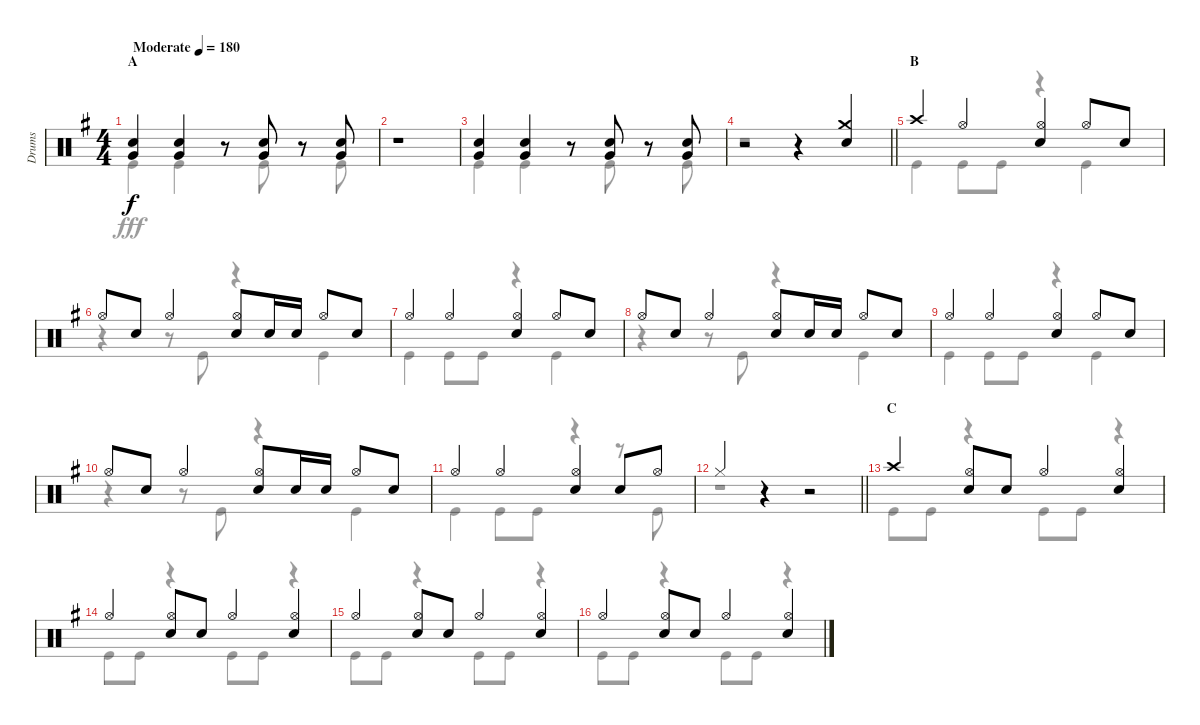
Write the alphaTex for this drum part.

\track ("Drums" "Drums") {instrument percussion}
\staff {score}
\articulation defaults
\voice
\ts (4 4)
\section ("" "A")
\tempo (180 "Moderate")
\clef neutral
\ks g
("Snare (hit) 2" "Very Low Tom (hit)").4{dy f} ("Snare (hit) 2" "Very Low Tom (hit)").4 r.8 ("Snare (hit) 2" "Very Low Tom (hit)").8 r.8 ("Snare (hit) 2" "Very Low Tom (hit)").8 |
r.1 |
("Snare (hit) 2" "Very Low Tom (hit)").4 ("Snare (hit) 2" "Very Low Tom (hit)").4 r.8 ("Snare (hit) 2" "Very Low Tom (hit)").8 r.8 ("Snare (hit) 2" "Very Low Tom (hit)").8 |
\barLineRight lightlight
r.2 r.4 ("Crash medium (hit)" "Snare (hit) 2").4 |
\section ("" "B")
"Crash high (hit)".4 "Hi-Hat (open)".4 ("Hi-Hat (open)" "Snare (hit) 2").4 "Hi-Hat (open)".8 "Snare (hit) 2".8 |
"Hi-Hat (open)".8 "Snare (hit) 2".8 "Hi-Hat (open)".4 ("Hi-Hat (open)" "Snare (hit) 2").8 "Snare (hit) 2".16 "Snare (hit) 2".16 "Hi-Hat (open)".8 "Snare (hit) 2".8 |
"Hi-Hat (open)".4 "Hi-Hat (open)".4 ("Hi-Hat (open)" "Snare (hit) 2").4 "Hi-Hat (open)".8 "Snare (hit) 2".8 |
"Hi-Hat (open)".8 "Snare (hit) 2".8 "Hi-Hat (open)".4 ("Hi-Hat (open)" "Snare (hit) 2").8 "Snare (hit) 2".16 "Snare (hit) 2".16 "Hi-Hat (open)".8 "Snare (hit) 2".8 |
"Hi-Hat (open)".4 "Hi-Hat (open)".4 ("Hi-Hat (open)" "Snare (hit) 2").4 "Hi-Hat (open)".8 "Snare (hit) 2".8 |
"Hi-Hat (open)".8 "Snare (hit) 2".8 "Hi-Hat (open)".4 ("Hi-Hat (open)" "Snare (hit) 2").8 "Snare (hit) 2".16 "Snare (hit) 2".16 "Hi-Hat (open)".8 "Snare (hit) 2".8 |
"Hi-Hat (open)".4 "Hi-Hat (open)".4 ("Hi-Hat (open)" "Snare (hit) 2").4 "Snare (hit) 2".8 "Hi-Hat (open)".8 |
\barLineRight lightlight "Hi-Hat (closed)".4
r.4 r.2 |
\section ("" "C")
"Crash high (hit)".4 ("Hi-Hat (open)" "Snare (hit) 2").8 "Snare (hit) 2".8 "Hi-Hat (open)".4 ("Hi-Hat (open)" "Snare (hit) 2").4 |
"Hi-Hat (open)".4 ("Hi-Hat (open)" "Snare (hit) 2").8 "Snare (hit) 2".8 "Hi-Hat (open)".4 ("Hi-Hat (open)" "Snare (hit) 2").4 |
"Hi-Hat (open)".4 ("Hi-Hat (open)" "Snare (hit) 2").8 "Snare (hit) 2".8 "Hi-Hat (open)".4 ("Hi-Hat (open)" "Snare (hit) 2").4 |
"Hi-Hat (open)".4 ("Hi-Hat (open)" "Snare (hit) 2").8 "Snare (hit) 2".8 "Hi-Hat (open)".4 ("Hi-Hat (open)" "Snare (hit) 2").4
\voice
\clef neutral
\ottava regular
\simile none
\ks g "Kick (hit)".4{dy fff} "Kick (hit)".4
r.8 "Kick (hit)".8 r.8 "Kick (hit)".8 |
r.1 |
"Kick (hit)".4 "Kick (hit)".4 r.8 "Kick (hit)".8 r.8 "Kick (hit)".8 |
\barLineRight lightlight
r.1 |
"Kick (hit)".4 "Kick (hit)".8 "Kick (hit)".8 r.4 "Kick (hit)".4 |
r.4 r.8 "Kick (hit)".8 r.4 "Kick (hit)".4 |
"Kick (hit)".4 "Kick (hit)".8 "Kick (hit)".8 r.4 "Kick (hit)".4 |
r.4 r.8 "Kick (hit)".8 r.4 "Kick (hit)".4 |
"Kick (hit)".4 "Kick (hit)".8 "Kick (hit)".8 r.4 "Kick (hit)".4 |
r.4 r.8 "Kick (hit)".8 r.4 "Kick (hit)".4 |
"Kick (hit)".4 "Kick (hit)".8 "Kick (hit)".8 r.4 r.8 "Kick (hit)".8 |
\barLineRight lightlight
r.1 |
"Kick (hit)".8 "Kick (hit)".8 r.4 "Kick (hit)".8 "Kick (hit)".8 r.4 |
"Kick (hit)".8 "Kick (hit)".8 r.4 "Kick (hit)".8 "Kick (hit)".8 r.4 |
"Kick (hit)".8 "Kick (hit)".8 r.4 "Kick (hit)".8 "Kick (hit)".8 r.4 |
"Kick (hit)".8 "Kick (hit)".8 r.4 "Kick (hit)".8 "Kick (hit)".8 r.4
